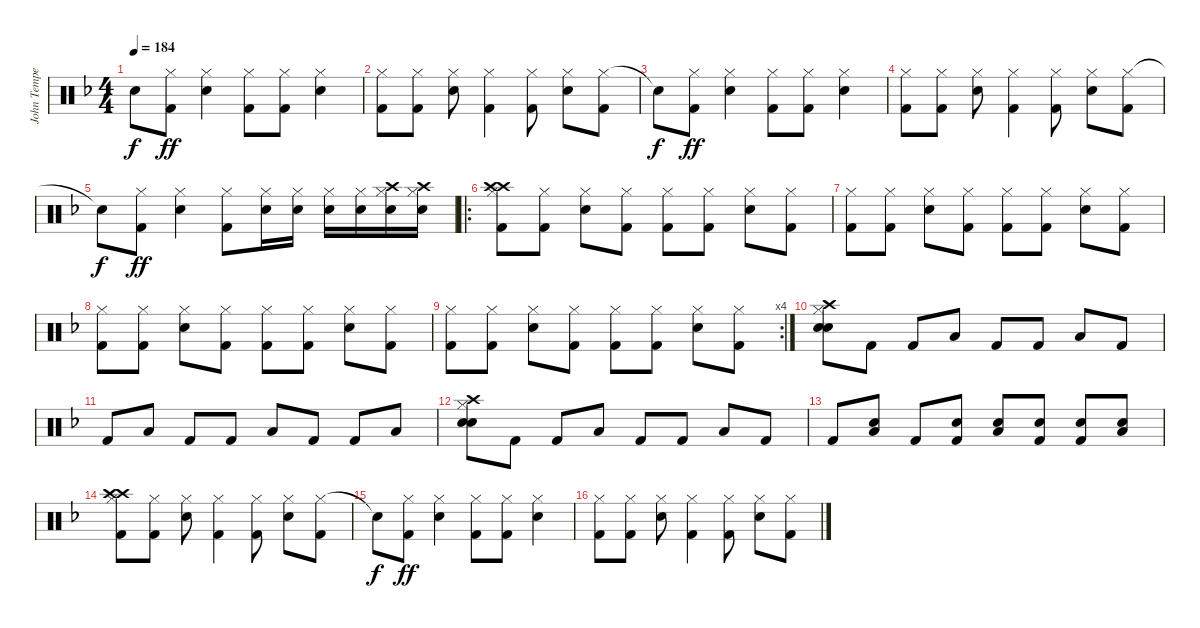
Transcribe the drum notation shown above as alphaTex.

\track ("John Tempesta " "John Tempe") {instrument percussion}
\staff {score}
\articulation defaults
\ts (4 4)
\tempo 184
\clef neutral
\ks f "Snare (hit)"{t}.8{dy f}
("Hi-Hat (closed)" "Kick (hit) 2").8{dy ff} ("Hi-Hat (closed)" "Electric Snare (hit)").4 ("Hi-Hat (closed)" "Kick (hit) 2").8 ("Hi-Hat (closed)" "Kick (hit) 2").8 ("Hi-Hat (closed)" "Electric Snare (hit)").4 |
("Hi-Hat (closed)" "Kick (hit) 2").8 ("Hi-Hat (closed)" "Kick (hit) 2").8 ("Hi-Hat (closed)" "Electric Snare (hit)").8 ("Hi-Hat (closed)" "Kick (hit) 2").4 ("Hi-Hat (closed)" "Kick (hit) 2").8 ("Hi-Hat (closed)" "Electric Snare (hit)").8 ("Hi-Hat (closed)" "Kick (hit) 2").8 |
"Snare (hit)"{t}.8{dy f} ("Hi-Hat (closed)" "Kick (hit) 2").8{dy ff} ("Hi-Hat (closed)" "Electric Snare (hit)").4 ("Hi-Hat (closed)" "Kick (hit) 2").8 ("Hi-Hat (closed)" "Kick (hit) 2").8 ("Hi-Hat (closed)" "Electric Snare (hit)").4 |
("Hi-Hat (closed)" "Kick (hit) 2").8 ("Hi-Hat (closed)" "Kick (hit) 2").8 ("Hi-Hat (closed)" "Electric Snare (hit)").8 ("Hi-Hat (closed)" "Kick (hit) 2").4 ("Hi-Hat (closed)" "Kick (hit) 2").8 ("Hi-Hat (closed)" "Electric Snare (hit)").8 ("Hi-Hat (closed)" "Kick (hit) 2").8 |
"Snare (hit)"{t}.8{dy f} ("Hi-Hat (closed)" "Kick (hit) 2").8{dy ff} ("Hi-Hat (closed)" "Electric Snare (hit)").4 ("Hi-Hat (closed)" "Kick (hit) 2").8 ("Hi-Hat (closed)" "Electric Snare (hit)").16 ("Hi-Hat (closed)" "Electric Snare (hit)").16 ("Hi-Hat (closed)" "Electric Snare (hit)").16 ("Hi-Hat (closed)" "Electric Snare (hit)").16 ("Crash high (hit)" "Hi-Hat (closed)" "Electric Snare (hit)").16 ("Crash high (hit)" "Hi-Hat (closed)" "Electric Snare (hit)").16 |
\ro
("Hi-Hat (closed)" "Kick (hit) 2" "Crash high (hit)" "Crash high (hit)").8 ("Hi-Hat (closed)" "Kick (hit) 2").8 ("Hi-Hat (closed)" "Electric Snare (hit)").8 ("Hi-Hat (closed)" "Kick (hit) 2").8 ("Hi-Hat (closed)" "Kick (hit) 2").8 ("Hi-Hat (closed)" "Kick (hit) 2").8 ("Hi-Hat (closed)" "Electric Snare (hit)").8 ("Hi-Hat (closed)" "Kick (hit) 2").8 |
("Hi-Hat (closed)" "Kick (hit) 2").8 ("Hi-Hat (closed)" "Kick (hit) 2").8 ("Hi-Hat (closed)" "Electric Snare (hit)").8 ("Hi-Hat (closed)" "Kick (hit) 2").8 ("Hi-Hat (closed)" "Kick (hit) 2").8 ("Hi-Hat (closed)" "Kick (hit) 2").8 ("Hi-Hat (closed)" "Electric Snare (hit)").8 ("Hi-Hat (closed)" "Kick (hit) 2").8 |
("Hi-Hat (closed)" "Kick (hit) 2").8 ("Hi-Hat (closed)" "Kick (hit) 2").8 ("Hi-Hat (closed)" "Electric Snare (hit)").8 ("Hi-Hat (closed)" "Kick (hit) 2").8 ("Hi-Hat (closed)" "Kick (hit) 2").8 ("Hi-Hat (closed)" "Kick (hit) 2").8 ("Hi-Hat (closed)" "Electric Snare (hit)").8 ("Hi-Hat (closed)" "Kick (hit) 2").8 |
\rc 4
("Hi-Hat (closed)" "Kick (hit) 2").8 ("Hi-Hat (closed)" "Kick (hit) 2").8 ("Hi-Hat (closed)" "Electric Snare (hit)").8 ("Hi-Hat (closed)" "Kick (hit) 2").8 ("Hi-Hat (closed)" "Kick (hit) 2").8 ("Hi-Hat (closed)" "Kick (hit) 2").8 ("Hi-Hat (closed)" "Electric Snare (hit)").8 ("Hi-Hat (closed)" "Kick (hit) 2").8 |
("Crash high (hit)" "Electric Snare (hit)" "Electric Snare (hit)" "Hi-Hat (closed)").8 "Kick (hit) 2".8 "Kick (hit) 2".8 "Low Floor Tom (hit)".8 "Kick (hit) 2".8 "Kick (hit) 2".8 "Low Floor Tom (hit)".8 "Kick (hit) 2".8 |
"Kick (hit) 2".8 "Low Floor Tom (hit)".8 "Kick (hit) 2".8 "Kick (hit) 2".8 "Low Floor Tom (hit)".8 "Kick (hit) 2".8 "Kick (hit) 2".8 "Low Floor Tom (hit)".8 |
("Crash high (hit)" "Electric Snare (hit)" "Electric Snare (hit)" "Hi-Hat (closed)").8 "Kick (hit) 2".8 "Kick (hit) 2".8 "Low Floor Tom (hit)".8 "Kick (hit) 2".8 "Kick (hit) 2".8 "Low Floor Tom (hit)".8 "Kick (hit) 2".8 |
"Kick (hit) 2".8 ("Electric Snare (hit)" "Low Floor Tom (hit)").8 "Kick (hit) 2".8 ("Electric Snare (hit)" "Kick (hit) 2").8 ("Electric Snare (hit)" "Low Floor Tom (hit)").8 ("Electric Snare (hit)" "Kick (hit) 2").8 ("Electric Snare (hit)" "Kick (hit) 2").8 ("Electric Snare (hit)" "Low Floor Tom (hit)").8 |
("Hi-Hat (closed)" "Kick (hit) 2" "Crash high (hit)" "Crash high (hit)").8 ("Hi-Hat (closed)" "Kick (hit) 2").8 ("Hi-Hat (closed)" "Electric Snare (hit)").8 ("Hi-Hat (closed)" "Kick (hit) 2").4 ("Hi-Hat (closed)" "Kick (hit) 2").8 ("Hi-Hat (closed)" "Electric Snare (hit)").8 ("Hi-Hat (closed)" "Kick (hit) 2").8 |
"Snare (hit)"{t}.8{dy f} ("Hi-Hat (closed)" "Kick (hit) 2").8{dy ff} ("Hi-Hat (closed)" "Electric Snare (hit)").4 ("Hi-Hat (closed)" "Kick (hit) 2").8 ("Hi-Hat (closed)" "Kick (hit) 2").8 ("Hi-Hat (closed)" "Electric Snare (hit)").4 |
("Hi-Hat (closed)" "Kick (hit) 2").8 ("Hi-Hat (closed)" "Kick (hit) 2").8 ("Hi-Hat (closed)" "Electric Snare (hit)").8 ("Hi-Hat (closed)" "Kick (hit) 2").4 ("Hi-Hat (closed)" "Kick (hit) 2").8 ("Hi-Hat (closed)" "Electric Snare (hit)").8 ("Hi-Hat (closed)" "Kick (hit) 2").8
